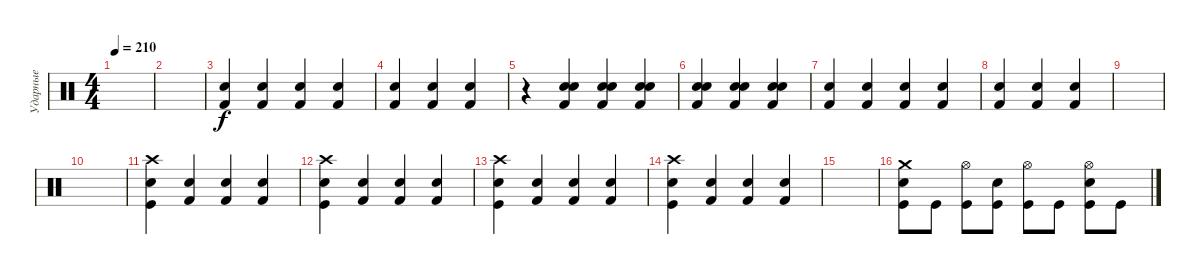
\track ("Ударные" "Ударные") {instrument percussion}
\staff {score}
\articulation defaults
\ts (4 4)
\tempo 210
\clef neutral
\ks c
|
|
("Kick (hit) 2" "Electric Snare (hit)").4 ("Electric Snare (hit)" "Kick (hit) 2").4 ("Kick (hit) 2" "Electric Snare (hit)").4 ("Electric Snare (hit)" "Kick (hit) 2").4 |
("Kick (hit) 2" "Electric Snare (hit)").4 ("Electric Snare (hit)" "Kick (hit) 2").4 ("Electric Snare (hit)" "Kick (hit) 2").4 |
r.4 ("Electric Snare (hit)" "Kick (hit) 2" "Snare (hit) 2").4 ("Kick (hit) 2" "Electric Snare (hit)" "Snare (hit) 2").4 ("Electric Snare (hit)" "Kick (hit) 2" "Snare (hit) 2").4 |
("Kick (hit) 2" "Electric Snare (hit)" "Snare (hit) 2").4 ("Electric Snare (hit)" "Kick (hit) 2" "Snare (hit) 2").4 ("Electric Snare (hit)" "Kick (hit) 2" "Snare (hit) 2").4 |
("Kick (hit) 2" "Electric Snare (hit)").4 ("Electric Snare (hit)" "Kick (hit) 2").4 ("Kick (hit) 2" "Electric Snare (hit)").4 ("Electric Snare (hit)" "Kick (hit) 2").4 |
("Kick (hit) 2" "Electric Snare (hit)").4 ("Electric Snare (hit)" "Kick (hit) 2").4 ("Electric Snare (hit)" "Kick (hit) 2").4 |
|
|
("Electric Snare (hit)" "Kick (hit)" "Crash high (hit)").4 ("Electric Snare (hit)" "Kick (hit) 2").4 ("Kick (hit) 2" "Electric Snare (hit)").4 ("Electric Snare (hit)" "Kick (hit) 2").4 |
("Electric Snare (hit)" "Kick (hit)" "Crash high (hit)").4 ("Electric Snare (hit)" "Kick (hit) 2").4 ("Kick (hit) 2" "Electric Snare (hit)").4 ("Electric Snare (hit)" "Kick (hit) 2").4 |
("Electric Snare (hit)" "Kick (hit)" "Crash high (hit)").4 ("Electric Snare (hit)" "Kick (hit) 2").4 ("Kick (hit) 2" "Electric Snare (hit)").4 ("Electric Snare (hit)" "Kick (hit) 2").4 |
("Electric Snare (hit)" "Kick (hit)" "Crash high (hit)").4 ("Electric Snare (hit)" "Kick (hit) 2").4 ("Kick (hit) 2" "Electric Snare (hit)").4 ("Electric Snare (hit)" "Kick (hit) 2").4 |
|
("Crash medium (hit)" "Electric Snare (hit)" "Kick (hit)").8 "Kick (hit)".8 ("Hi-Hat (open)" "Kick (hit)").8 ("Electric Snare (hit)" "Kick (hit)").8 ("Hi-Hat (open)" "Kick (hit)").8 "Kick (hit)".8 ("Hi-Hat (open)" "Electric Snare (hit)" "Kick (hit)").8 "Kick (hit)".8
